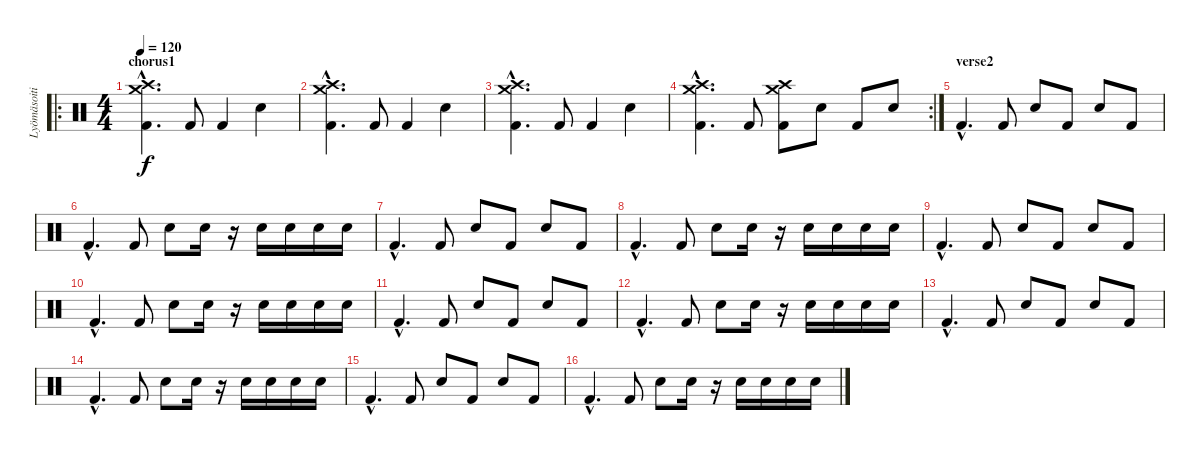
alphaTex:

\track ("Lyömäsoitin" "Lyömäsoiti") {instrument percussion}
\staff {score}
\articulation defaults
\ro
\ts (4 4)
\section ("" "chorus1")
\tempo 120
\clef neutral
\ks c
("Kick (hit) 2"{hac} "Crash high (hit)"{hac} "Crash medium (hit)"{hac}).4{d dy f} "Kick (hit) 2".8 "Kick (hit) 2".4 "Snare (hit) 2".4 |
("Kick (hit) 2"{hac} "Crash medium (hit)"{hac} "Crash high (hit)"{hac}).4{d} "Kick (hit) 2".8 "Kick (hit) 2".4 "Snare (hit) 2".4 |
("Kick (hit) 2"{hac} "Crash medium (hit)"{hac} "Crash high (hit)"{hac}).4{d} "Kick (hit) 2".8 "Kick (hit) 2".4 "Snare (hit) 2".4 |
\rc 2
("Kick (hit) 2"{hac} "Crash medium (hit)"{hac} "Crash high (hit)"{hac}).4{d} "Kick (hit) 2".8 ("Kick (hit) 2" "Crash medium (hit)" "Crash high (hit)").8 "Snare (hit) 2".8 "Kick (hit) 2".8 "Snare (hit) 2".8 |
\section ("" "verse2")
"Kick (hit) 2"{hac}.4{d} "Kick (hit) 2".8 "Snare (hit) 2".8 "Kick (hit) 2".8 "Snare (hit) 2".8 "Kick (hit) 2".8 |
"Kick (hit) 2"{hac}.4{d} "Kick (hit) 2".8 "Snare (hit) 2".8 "Snare (hit) 2".16 r.16 "Snare (hit) 2".16 "Snare (hit) 2".16 "Snare (hit) 2".16 "Snare (hit) 2".16 |
"Kick (hit) 2"{hac}.4{d} "Kick (hit) 2".8 "Snare (hit) 2".8 "Kick (hit) 2".8 "Snare (hit) 2".8 "Kick (hit) 2".8 |
"Kick (hit) 2"{hac}.4{d} "Kick (hit) 2".8 "Snare (hit) 2".8 "Snare (hit) 2".16 r.16 "Snare (hit) 2".16 "Snare (hit) 2".16 "Snare (hit) 2".16 "Snare (hit) 2".16 |
"Kick (hit) 2"{hac}.4{d} "Kick (hit) 2".8 "Snare (hit) 2".8 "Kick (hit) 2".8 "Snare (hit) 2".8 "Kick (hit) 2".8 |
"Kick (hit) 2"{hac}.4{d} "Kick (hit) 2".8 "Snare (hit) 2".8 "Snare (hit) 2".16 r.16 "Snare (hit) 2".16 "Snare (hit) 2".16 "Snare (hit) 2".16 "Snare (hit) 2".16 |
"Kick (hit) 2"{hac}.4{d} "Kick (hit) 2".8 "Snare (hit) 2".8 "Kick (hit) 2".8 "Snare (hit) 2".8 "Kick (hit) 2".8 |
"Kick (hit) 2"{hac}.4{d} "Kick (hit) 2".8 "Snare (hit) 2".8 "Snare (hit) 2".16 r.16 "Snare (hit) 2".16 "Snare (hit) 2".16 "Snare (hit) 2".16 "Snare (hit) 2".16 |
"Kick (hit) 2"{hac}.4{d} "Kick (hit) 2".8 "Snare (hit) 2".8 "Kick (hit) 2".8 "Snare (hit) 2".8 "Kick (hit) 2".8 |
"Kick (hit) 2"{hac}.4{d} "Kick (hit) 2".8 "Snare (hit) 2".8 "Snare (hit) 2".16 r.16 "Snare (hit) 2".16 "Snare (hit) 2".16 "Snare (hit) 2".16 "Snare (hit) 2".16 |
"Kick (hit) 2"{hac}.4{d} "Kick (hit) 2".8 "Snare (hit) 2".8 "Kick (hit) 2".8 "Snare (hit) 2".8 "Kick (hit) 2".8 |
"Kick (hit) 2"{hac}.4{d} "Kick (hit) 2".8 "Snare (hit) 2".8 "Snare (hit) 2".16 r.16 "Snare (hit) 2".16 "Snare (hit) 2".16 "Snare (hit) 2".16 "Snare (hit) 2".16
